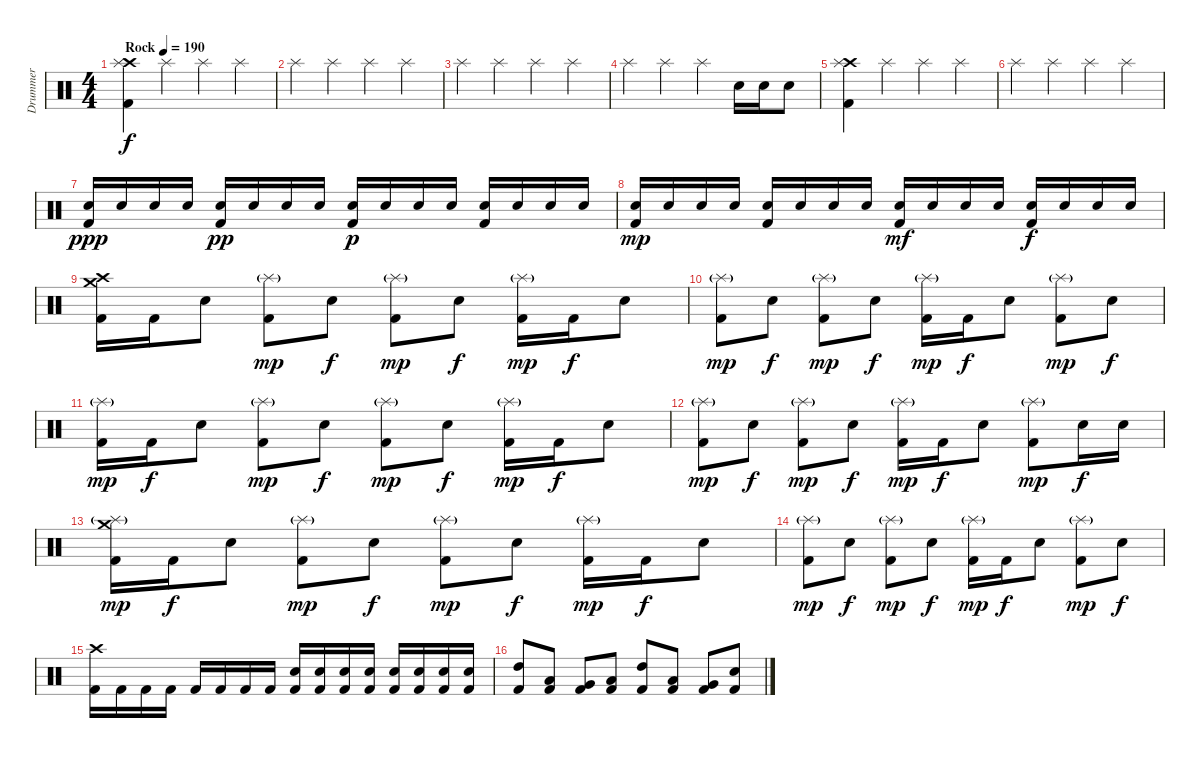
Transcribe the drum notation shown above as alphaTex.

\track ("Drummer" "Drummer") {instrument percussion bank 7}
\staff {score}
\articulation defaults
\ts (4 4)
\tempo (190 "Rock")
\clef neutral
\ks c
("Crash high (hit)" "Splash (hit)" "Kick (hit) 2").4{dy f} "Splash (hit)".4 "Splash (hit)".4 "Splash (hit)".4 |
"Splash (hit)".4 "Splash (hit)".4 "Splash (hit)".4 "Splash (hit)".4 |
"Splash (hit)".4 "Splash (hit)".4 "Splash (hit)".4 "Splash (hit)".4 |
"Splash (hit)".4 "Splash (hit)".4 "Splash (hit)".4 "Electric Snare (hit)".16 "Electric Snare (hit)".16 "Electric Snare (hit)".8 |
("Crash high (hit)" "Splash (hit)" "Kick (hit) 2").4 "Splash (hit)".4 "Splash (hit)".4 "Splash (hit)".4 |
"Splash (hit)".4 "Splash (hit)".4 "Splash (hit)".4 "Splash (hit)".4 |
("Electric Snare (hit)" "Kick (hit) 2").16{dy ppp} "Electric Snare (hit)".16 "Electric Snare (hit)".16 "Electric Snare (hit)".16 ("Electric Snare (hit)" "Kick (hit) 2").16{dy pp} "Electric Snare (hit)".16 "Electric Snare (hit)".16 "Electric Snare (hit)".16 ("Electric Snare (hit)" "Kick (hit) 2").16{dy p} "Electric Snare (hit)".16 "Electric Snare (hit)".16 "Electric Snare (hit)".16 ("Electric Snare (hit)" "Kick (hit) 2").16 "Electric Snare (hit)".16 "Electric Snare (hit)".16 "Electric Snare (hit)".16 |
("Electric Snare (hit)" "Kick (hit) 2").16{dy mp} "Electric Snare (hit)".16 "Electric Snare (hit)".16 "Electric Snare (hit)".16 ("Electric Snare (hit)" "Kick (hit) 2").16 "Electric Snare (hit)".16 "Electric Snare (hit)".16 "Electric Snare (hit)".16 ("Electric Snare (hit)" "Kick (hit) 2").16{dy mf} "Electric Snare (hit)".16 "Electric Snare (hit)".16 "Electric Snare (hit)".16 ("Electric Snare (hit)" "Kick (hit) 2").16{dy f} "Electric Snare (hit)".16 "Electric Snare (hit)".16 "Electric Snare (hit)".16 |
("Crash medium (hit)" "Crash high (hit)" "Kick (hit) 2").16 "Kick (hit) 2".16 "Electric Snare (hit)".8 ("Splash (hit)"{g} "Kick (hit) 2").8{dy mp} "Electric Snare (hit)".8{dy f} ("Splash (hit)"{g} "Kick (hit) 2").8{dy mp} "Electric Snare (hit)".8{dy f} ("Splash (hit)"{g} "Kick (hit) 2").16{dy mp} "Kick (hit) 2".16{dy f} "Electric Snare (hit)".8 |
("Splash (hit)"{g} "Kick (hit) 2").8{dy mp} "Electric Snare (hit)".8{dy f} ("Splash (hit)"{g} "Kick (hit) 2").8{dy mp} "Electric Snare (hit)".8{dy f} ("Splash (hit)"{g} "Kick (hit) 2").16{dy mp} "Kick (hit) 2".16{dy f} "Electric Snare (hit)".8 ("Splash (hit)"{g} "Kick (hit) 2").8{dy mp} "Electric Snare (hit)".8{dy f} |
("Splash (hit)"{g} "Kick (hit) 2").16{dy mp} "Kick (hit) 2".16{dy f} "Electric Snare (hit)".8 ("Splash (hit)"{g} "Kick (hit) 2").8{dy mp} "Electric Snare (hit)".8{dy f} ("Splash (hit)"{g} "Kick (hit) 2").8{dy mp} "Electric Snare (hit)".8{dy f} ("Splash (hit)"{g} "Kick (hit) 2").16{dy mp} "Kick (hit) 2".16{dy f} "Electric Snare (hit)".8 |
("Splash (hit)"{g} "Kick (hit) 2").8{dy mp} "Electric Snare (hit)".8{dy f} ("Splash (hit)"{g} "Kick (hit) 2").8{dy mp} "Electric Snare (hit)".8{dy f} ("Splash (hit)"{g} "Kick (hit) 2").16{dy mp} "Kick (hit) 2".16{dy f} "Electric Snare (hit)".8 ("Splash (hit)"{g} "Kick (hit) 2").8{dy mp} "Electric Snare (hit)".16{dy f} "Electric Snare (hit)".16 |
("Crash medium (hit)" "Splash (hit)"{g} "Kick (hit) 2").16{dy mp} "Kick (hit) 2".16{dy f} "Electric Snare (hit)".8 ("Splash (hit)"{g} "Kick (hit) 2").8{dy mp} "Electric Snare (hit)".8{dy f} ("Splash (hit)"{g} "Kick (hit) 2").8{dy mp} "Electric Snare (hit)".8{dy f} ("Splash (hit)"{g} "Kick (hit) 2").16{dy mp} "Kick (hit) 2".16{dy f} "Electric Snare (hit)".8 |
("Splash (hit)"{g} "Kick (hit) 2").8{dy mp} "Electric Snare (hit)".8{dy f} ("Splash (hit)"{g} "Kick (hit) 2").8{dy mp} "Electric Snare (hit)".8{dy f} ("Splash (hit)"{g} "Kick (hit) 2").16{dy mp} "Kick (hit) 2".16{dy f} "Electric Snare (hit)".8 ("Splash (hit)"{g} "Kick (hit) 2").8{dy mp} "Electric Snare (hit)".8{dy f} |
("Crash high (hit)" "Kick (hit) 2").16 "Kick (hit) 2".16 "Kick (hit) 2".16 "Kick (hit) 2".16 "Kick (hit) 2".16 "Kick (hit) 2".16 "Kick (hit) 2".16 "Kick (hit) 2".16 ("Electric Snare (hit)" "Kick (hit) 2").16 ("Electric Snare (hit)" "Kick (hit) 2").16 ("Electric Snare (hit)" "Kick (hit) 2").16 ("Electric Snare (hit)" "Kick (hit) 2").16 ("Electric Snare (hit)" "Kick (hit) 2").16 ("Electric Snare (hit)" "Kick (hit) 2").16 ("Electric Snare (hit)" "Kick (hit) 2").16 ("Electric Snare (hit)" "Kick (hit) 2").16 |
("High Tom (hit)" "Kick (hit) 2").8 ("Low Tom (hit)" "Kick (hit) 2").8 ("Very Low Tom (hit)" "Kick (hit) 2").8 ("Low Floor Tom (hit)" "Kick (hit) 2").8 ("High Tom (hit)" "Kick (hit) 2").8 ("Low Tom (hit)" "Kick (hit) 2").8 ("Very Low Tom (hit)" "Kick (hit) 2").8 ("Electric Snare (hit)" "Kick (hit) 2").8
